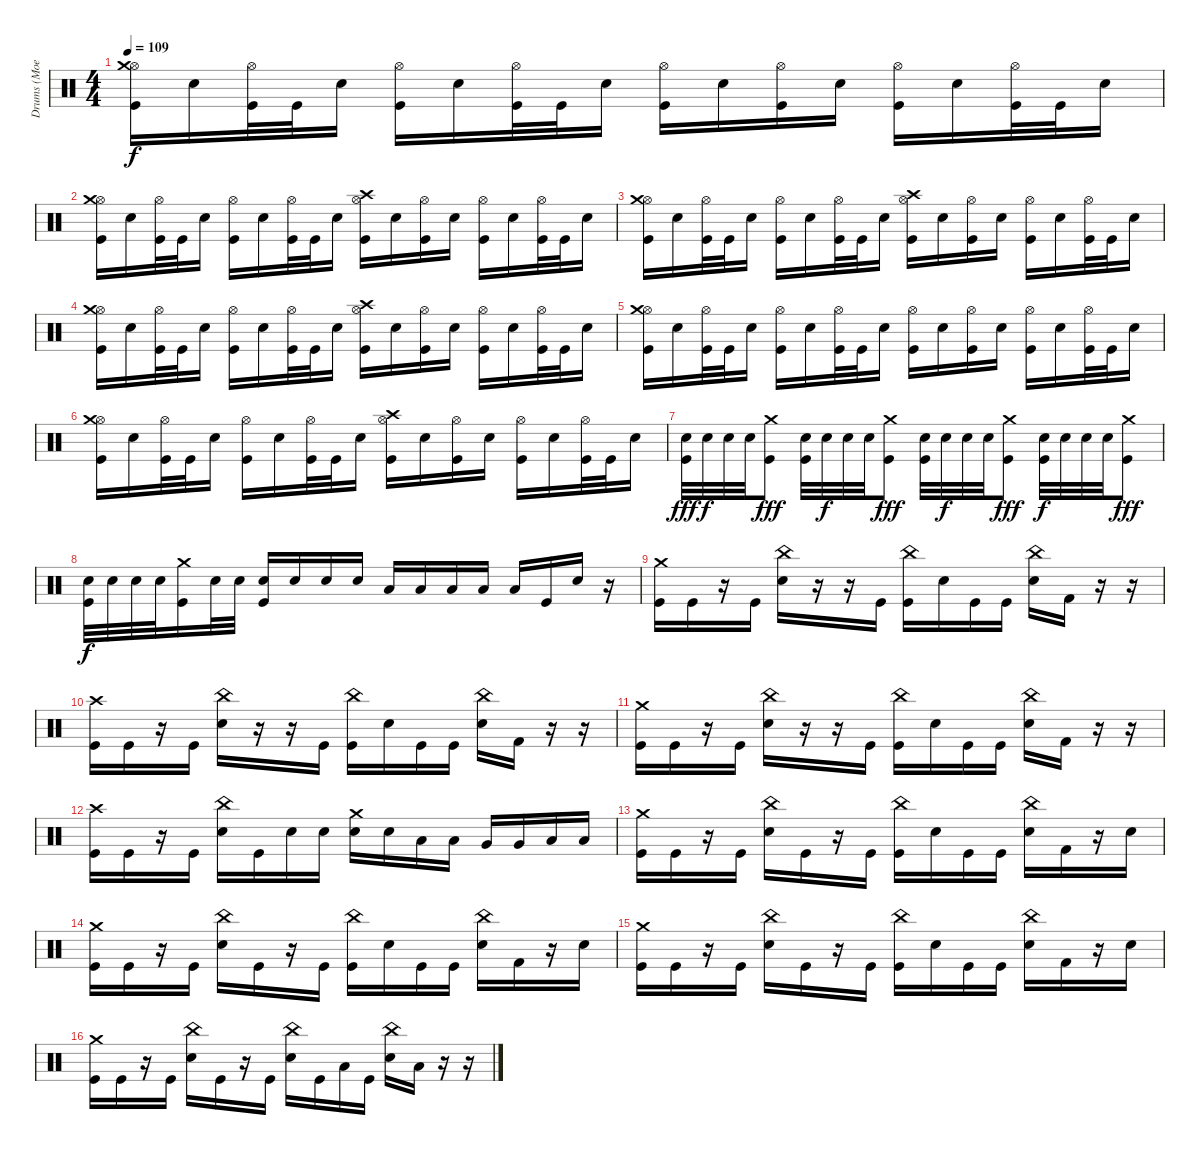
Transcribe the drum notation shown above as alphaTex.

\track ("Drums (Moe)" "Drums (Moe") {instrument percussion}
\staff {score}
\articulation defaults
\ts (4 4)
\tempo 109
\clef neutral
\ks c
("Kick (hit)" "Hi-Hat (open)" "Crash medium (hit)").16{dy f} "Snare (hit) 2".16 ("Kick (hit)" "Hi-Hat (open)").32 "Kick (hit)".32 "Snare (hit) 2".16 ("Kick (hit)" "Hi-Hat (open)").16 "Snare (hit) 2".16 ("Kick (hit)" "Hi-Hat (open)").32 "Kick (hit)".32 "Snare (hit) 2".16 ("Kick (hit)" "Hi-Hat (open)").16 "Snare (hit) 2".16 ("Kick (hit)" "Hi-Hat (open)").16 "Snare (hit) 2".16 ("Kick (hit)" "Hi-Hat (open)").16 "Snare (hit) 2".16 ("Kick (hit)" "Hi-Hat (open)").32 "Kick (hit)".32 "Snare (hit) 2".16 |
("Kick (hit)" "Hi-Hat (open)" "Crash medium (hit)").16 "Snare (hit) 2".16 ("Kick (hit)" "Hi-Hat (open)").32 "Kick (hit)".32 "Snare (hit) 2".16 ("Kick (hit)" "Hi-Hat (open)").16 "Snare (hit) 2".16 ("Kick (hit)" "Hi-Hat (open)").32 "Kick (hit)".32 "Snare (hit) 2".16 ("Kick (hit)" "Hi-Hat (open)" "Crash high (hit)").16 "Snare (hit) 2".16 ("Kick (hit)" "Hi-Hat (open)").16 "Snare (hit) 2".16 ("Kick (hit)" "Hi-Hat (open)").16 "Snare (hit) 2".16 ("Kick (hit)" "Hi-Hat (open)").32 "Kick (hit)".32 "Snare (hit) 2".16 |
("Kick (hit)" "Hi-Hat (open)" "Crash medium (hit)").16 "Snare (hit) 2".16 ("Kick (hit)" "Hi-Hat (open)").32 "Kick (hit)".32 "Snare (hit) 2".16 ("Kick (hit)" "Hi-Hat (open)").16 "Snare (hit) 2".16 ("Kick (hit)" "Hi-Hat (open)").32 "Kick (hit)".32 "Snare (hit) 2".16 ("Kick (hit)" "Hi-Hat (open)" "Crash high (hit)").16 "Snare (hit) 2".16 ("Kick (hit)" "Hi-Hat (open)").16 "Snare (hit) 2".16 ("Kick (hit)" "Hi-Hat (open)").16 "Snare (hit) 2".16 ("Kick (hit)" "Hi-Hat (open)").32 "Kick (hit)".32 "Snare (hit) 2".16 |
("Kick (hit)" "Hi-Hat (open)" "Crash medium (hit)").16 "Snare (hit) 2".16 ("Kick (hit)" "Hi-Hat (open)").32 "Kick (hit)".32 "Snare (hit) 2".16 ("Kick (hit)" "Hi-Hat (open)").16 "Snare (hit) 2".16 ("Kick (hit)" "Hi-Hat (open)").32 "Kick (hit)".32 "Snare (hit) 2".16 ("Kick (hit)" "Hi-Hat (open)" "Crash high (hit)").16 "Snare (hit) 2".16 ("Kick (hit)" "Hi-Hat (open)").16 "Snare (hit) 2".16 ("Kick (hit)" "Hi-Hat (open)").16 "Snare (hit) 2".16 ("Kick (hit)" "Hi-Hat (open)").32 "Kick (hit)".32 "Snare (hit) 2".16 |
("Kick (hit)" "Hi-Hat (open)" "Crash medium (hit)").16 "Snare (hit) 2".16 ("Kick (hit)" "Hi-Hat (open)").32 "Kick (hit)".32 "Snare (hit) 2".16 ("Kick (hit)" "Hi-Hat (open)").16 "Snare (hit) 2".16 ("Kick (hit)" "Hi-Hat (open)").32 "Kick (hit)".32 "Snare (hit) 2".16 ("Kick (hit)" "Hi-Hat (open)").16 "Snare (hit) 2".16 ("Kick (hit)" "Hi-Hat (open)").16 "Snare (hit) 2".16 ("Kick (hit)" "Hi-Hat (open)").16 "Snare (hit) 2".16 ("Kick (hit)" "Hi-Hat (open)").32 "Kick (hit)".32 "Snare (hit) 2".16 |
("Kick (hit)" "Hi-Hat (open)" "Crash medium (hit)").16 "Snare (hit) 2".16 ("Kick (hit)" "Hi-Hat (open)").32 "Kick (hit)".32 "Snare (hit) 2".16 ("Kick (hit)" "Hi-Hat (open)").16 "Snare (hit) 2".16 ("Kick (hit)" "Hi-Hat (open)").32 "Kick (hit)".32 "Snare (hit) 2".16 ("Kick (hit)" "Hi-Hat (open)" "Crash high (hit)").16 "Snare (hit) 2".16 ("Kick (hit)" "Hi-Hat (open)").16 "Snare (hit) 2".16 ("Kick (hit)" "Hi-Hat (open)").16 "Snare (hit) 2".16 ("Kick (hit)" "Hi-Hat (open)").32 "Kick (hit)".32 "Snare (hit) 2".16 |
("Kick (hit)" "Snare (hit) 2").32{dy fff} "Snare (hit) 2".32{dy f} "Snare (hit) 2".32 "Snare (hit) 2".32 ("Kick (hit)" "Crash medium (hit)").8{dy fff} ("Kick (hit)" "Snare (hit) 2").32 "Snare (hit) 2".32{dy f} "Snare (hit) 2".32 "Snare (hit) 2".32 ("Kick (hit)" "Crash medium (hit)").8{dy fff} ("Kick (hit)" "Snare (hit) 2").32 "Snare (hit) 2".32{dy f} "Snare (hit) 2".32 "Snare (hit) 2".32 ("Kick (hit)" "Crash medium (hit)").8{dy fff} ("Kick (hit)" "Snare (hit) 2").32{dy f} "Snare (hit) 2".32 "Snare (hit) 2".32 "Snare (hit) 2".32 ("Kick (hit)" "Crash medium (hit)").8{dy fff} |
("Kick (hit)" "Snare (hit) 2").32{dy f} "Snare (hit) 2".32 "Snare (hit) 2".32 "Snare (hit) 2".32 ("Kick (hit)" "Crash medium (hit)").16 "Snare (hit) 2".32 "Snare (hit) 2".32 ("Kick (hit)" "Snare (hit) 2").16 "Snare (hit) 2".16 "Snare (hit) 2".16 "Snare (hit) 2".16 "Low Tom (hit)".16 "Low Tom (hit)".16 "Low Tom (hit)".16 "Low Tom (hit)".16 "Low Floor Tom (hit)".16 "Kick (hit)".16 "Snare (hit) 2".16 r.16 |
("Kick (hit)" "Crash medium (hit)").16 "Kick (hit)".16 r.16 "Kick (hit)".16 ("Snare (hit) 2" "China (hit)").16 r.16 r.16 "Kick (hit)".16 ("Kick (hit)" "China (hit)").16 "Snare (hit) 2".16 "Kick (hit)".16 "Kick (hit)".16 ("Snare (hit) 2" "China (hit)").16 "Kick (hit) 2".16 r.16 r.16 |
("Kick (hit)" "Crash high (hit)").16 "Kick (hit)".16 r.16 "Kick (hit)".16 ("Snare (hit) 2" "China (hit)").16 r.16 r.16 "Kick (hit)".16 ("Kick (hit)" "China (hit)").16 "Snare (hit) 2".16 "Kick (hit)".16 "Kick (hit)".16 ("Snare (hit) 2" "China (hit)").16 "Kick (hit) 2".16 r.16 r.16 |
("Kick (hit)" "Crash medium (hit)").16 "Kick (hit)".16 r.16 "Kick (hit)".16 ("Snare (hit) 2" "China (hit)").16 r.16 r.16 "Kick (hit)".16 ("Kick (hit)" "China (hit)").16 "Snare (hit) 2".16 "Kick (hit)".16 "Kick (hit)".16 ("Snare (hit) 2" "China (hit)").16 "Kick (hit) 2".16 r.16 r.16 |
("Kick (hit)" "Crash high (hit)").16 "Kick (hit)".16 r.16 "Kick (hit)".16 ("Snare (hit) 2" "China (hit)").16 "Kick (hit)".16 "Snare (hit) 2".16 "Snare (hit) 2".16 ("Snare (hit) 2" "Crash medium (hit)").16 "Snare (hit) 2".16 "Low Tom (hit)".16 "Low Tom (hit)".16 "Very Low Tom (hit)".16 "Very Low Tom (hit)".16 "Low Floor Tom (hit)".16 "Low Floor Tom (hit)".16 |
("Kick (hit)" "Crash medium (hit)").16 "Kick (hit)".16 r.16 "Kick (hit)".16 ("Snare (hit) 2" "China (hit)").16 "Kick (hit)".16 r.16 "Kick (hit)".16 ("Kick (hit)" "China (hit)").16 "Snare (hit) 2".16 "Kick (hit)".16 "Kick (hit)".16 ("Snare (hit) 2" "China (hit)").16 "Kick (hit) 2".16 r.16 "Snare (hit) 2".16 |
("Kick (hit)" "Crash medium (hit)").16 "Kick (hit)".16 r.16 "Kick (hit)".16 ("Snare (hit) 2" "China (hit)").16 "Kick (hit)".16 r.16 "Kick (hit)".16 ("Kick (hit)" "China (hit)").16 "Snare (hit) 2".16 "Kick (hit)".16 "Kick (hit)".16 ("Snare (hit) 2" "China (hit)").16 "Kick (hit) 2".16 r.16 "Snare (hit) 2".16 |
("Kick (hit)" "Crash medium (hit)").16 "Kick (hit)".16 r.16 "Kick (hit)".16 ("Snare (hit) 2" "China (hit)").16 "Kick (hit)".16 r.16 "Kick (hit)".16 ("Kick (hit)" "China (hit)").16 "Snare (hit) 2".16 "Kick (hit)".16 "Kick (hit)".16 ("Snare (hit) 2" "China (hit)").16 "Kick (hit) 2".16 r.16 "Snare (hit) 2".16 |
("Kick (hit)" "Crash medium (hit)").16 "Kick (hit)".16 r.16 "Kick (hit)".16 ("Snare (hit) 2" "China (hit)").16 "Kick (hit)".16 r.16 "Kick (hit)".16 ("Snare (hit) 2" "China (hit)").16 "Kick (hit)".16 "Low Tom (hit)".16 "Kick (hit)".16 ("Snare (hit) 2" "China (hit)").16 "Low Floor Tom (hit)".16 r.16 r.16
